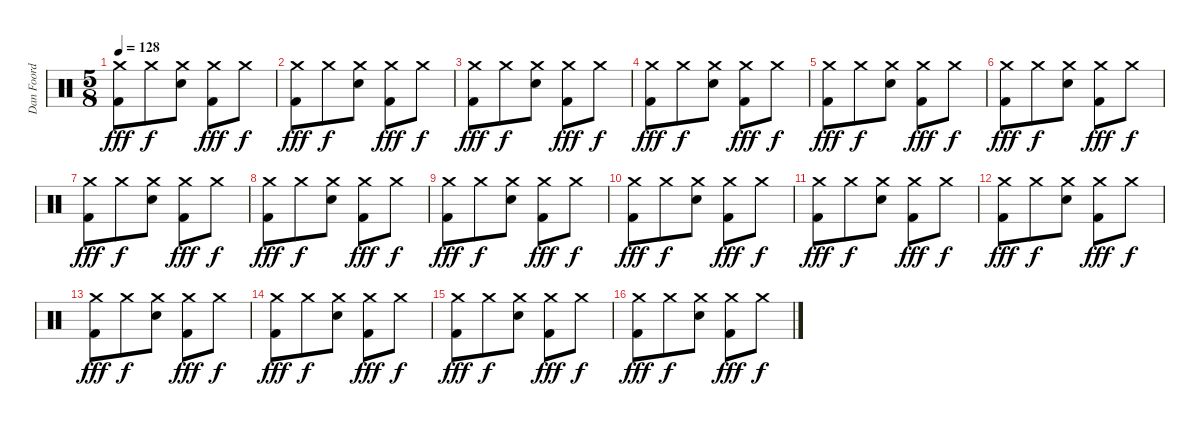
\track ("Dan Foord 2" "Dan Foord ") {instrument percussion}
\staff {score}
\articulation defaults
\ts (5 8)
\tempo 128
\clef neutral
\ks c
("Kick (hit) 2" "Crash medium (hit)").8{dy fff} "Crash medium (hit)".8{dy f} ("Snare (hit) 2" "Crash medium (hit)").8 ("Kick (hit) 2" "Crash medium (hit)").8{dy fff} "Crash medium (hit)".8{dy f} |
("Kick (hit) 2" "Crash medium (hit)").8{dy fff} "Crash medium (hit)".8{dy f} ("Snare (hit) 2" "Crash medium (hit)").8 ("Kick (hit) 2" "Crash medium (hit)").8{dy fff} "Crash medium (hit)".8{dy f} |
("Kick (hit) 2" "Crash medium (hit)").8{dy fff} "Crash medium (hit)".8{dy f} ("Snare (hit) 2" "Crash medium (hit)").8 ("Kick (hit) 2" "Crash medium (hit)").8{dy fff} "Crash medium (hit)".8{dy f} |
("Kick (hit) 2" "Crash medium (hit)").8{dy fff} "Crash medium (hit)".8{dy f} ("Snare (hit) 2" "Crash medium (hit)").8 ("Kick (hit) 2" "Crash medium (hit)").8{dy fff} "Crash medium (hit)".8{dy f} |
("Kick (hit) 2" "Crash medium (hit)").8{dy fff} "Crash medium (hit)".8{dy f} ("Snare (hit) 2" "Crash medium (hit)").8 ("Kick (hit) 2" "Crash medium (hit)").8{dy fff} "Crash medium (hit)".8{dy f} |
("Kick (hit) 2" "Crash medium (hit)").8{dy fff} "Crash medium (hit)".8{dy f} ("Snare (hit) 2" "Crash medium (hit)").8 ("Kick (hit) 2" "Crash medium (hit)").8{dy fff} "Crash medium (hit)".8{dy f} |
("Kick (hit) 2" "Crash medium (hit)").8{dy fff} "Crash medium (hit)".8{dy f} ("Snare (hit) 2" "Crash medium (hit)").8 ("Kick (hit) 2" "Crash medium (hit)").8{dy fff} "Crash medium (hit)".8{dy f} |
("Kick (hit) 2" "Crash medium (hit)").8{dy fff} "Crash medium (hit)".8{dy f} ("Snare (hit) 2" "Crash medium (hit)").8 ("Kick (hit) 2" "Crash medium (hit)").8{dy fff} "Crash medium (hit)".8{dy f} |
("Kick (hit) 2" "Crash medium (hit)").8{dy fff} "Crash medium (hit)".8{dy f} ("Snare (hit) 2" "Crash medium (hit)").8 ("Kick (hit) 2" "Crash medium (hit)").8{dy fff} "Crash medium (hit)".8{dy f} |
("Kick (hit) 2" "Crash medium (hit)").8{dy fff} "Crash medium (hit)".8{dy f} ("Snare (hit) 2" "Crash medium (hit)").8 ("Kick (hit) 2" "Crash medium (hit)").8{dy fff} "Crash medium (hit)".8{dy f} |
("Kick (hit) 2" "Crash medium (hit)").8{dy fff} "Crash medium (hit)".8{dy f} ("Snare (hit) 2" "Crash medium (hit)").8 ("Kick (hit) 2" "Crash medium (hit)").8{dy fff} "Crash medium (hit)".8{dy f} |
("Kick (hit) 2" "Crash medium (hit)").8{dy fff} "Crash medium (hit)".8{dy f} ("Snare (hit) 2" "Crash medium (hit)").8 ("Kick (hit) 2" "Crash medium (hit)").8{dy fff} "Crash medium (hit)".8{dy f} |
("Kick (hit) 2" "Crash medium (hit)").8{dy fff} "Crash medium (hit)".8{dy f} ("Snare (hit) 2" "Crash medium (hit)").8 ("Kick (hit) 2" "Crash medium (hit)").8{dy fff} "Crash medium (hit)".8{dy f} |
("Kick (hit) 2" "Crash medium (hit)").8{dy fff} "Crash medium (hit)".8{dy f} ("Snare (hit) 2" "Crash medium (hit)").8 ("Kick (hit) 2" "Crash medium (hit)").8{dy fff} "Crash medium (hit)".8{dy f} |
("Kick (hit) 2" "Crash medium (hit)").8{dy fff} "Crash medium (hit)".8{dy f} ("Snare (hit) 2" "Crash medium (hit)").8 ("Kick (hit) 2" "Crash medium (hit)").8{dy fff} "Crash medium (hit)".8{dy f} |
("Kick (hit) 2" "Crash medium (hit)").8{dy fff} "Crash medium (hit)".8{dy f} ("Snare (hit) 2" "Crash medium (hit)").8 ("Kick (hit) 2" "Crash medium (hit)").8{dy fff} "Crash medium (hit)".8{dy f}
